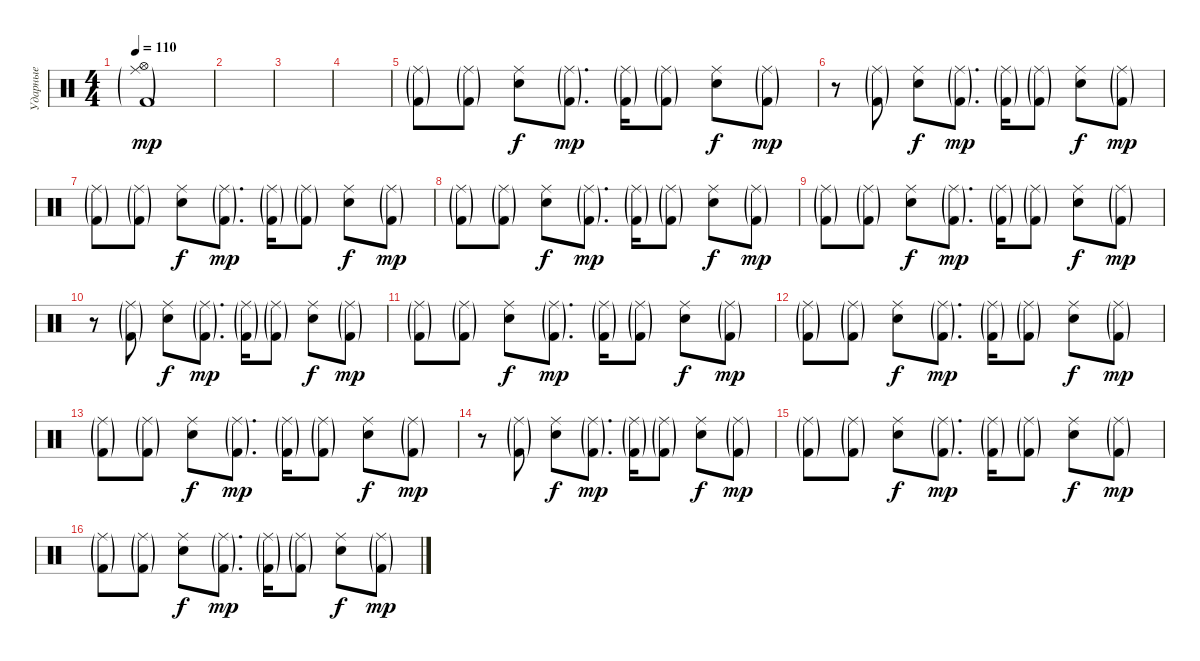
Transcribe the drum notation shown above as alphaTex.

\track ("Ударные" "Ударные") {instrument percussion}
\staff {score}
\articulation defaults
\ts (4 4)
\tempo 110
\clef neutral
\ks c
("Hi-Hat (open)" "Ride (middle)"{g} "Kick (hit) 2"{g}).1{dy mp} |
|
|
|
("Ride (middle)"{g} "Kick (hit) 2"{g}).8 ("Ride (middle)"{g} "Kick (hit) 2"{g}).8 ("Ride (middle)" "Snare (hit) 2").8{dy f} ("Ride (middle)"{g} "Kick (hit) 2"{g}).8{d dy mp} ("Ride (middle)"{g} "Kick (hit) 2"{g}).16 ("Ride (middle)"{g} "Kick (hit) 2"{g}).8 ("Ride (middle)" "Snare (hit) 2").8{dy f} ("Ride (middle)"{g} "Kick (hit) 2"{g}).8{dy mp} |
r.8 ("Ride (middle)"{g} "Kick (hit) 2"{g}).8 ("Ride (middle)" "Snare (hit) 2").8{dy f} ("Ride (middle)"{g} "Kick (hit) 2"{g}).8{d dy mp} ("Ride (middle)"{g} "Kick (hit) 2"{g}).16 ("Ride (middle)"{g} "Kick (hit) 2"{g}).8 ("Ride (middle)" "Snare (hit) 2").8{dy f} ("Ride (middle)"{g} "Kick (hit) 2"{g}).8{dy mp} |
("Ride (middle)"{g} "Kick (hit) 2"{g}).8 ("Ride (middle)"{g} "Kick (hit) 2"{g}).8 ("Ride (middle)" "Snare (hit) 2").8{dy f} ("Ride (middle)"{g} "Kick (hit) 2"{g}).8{d dy mp} ("Ride (middle)"{g} "Kick (hit) 2"{g}).16 ("Ride (middle)"{g} "Kick (hit) 2"{g}).8 ("Ride (middle)" "Snare (hit) 2").8{dy f} ("Ride (middle)"{g} "Kick (hit) 2"{g}).8{dy mp} |
("Ride (middle)"{g} "Kick (hit) 2"{g}).8 ("Ride (middle)"{g} "Kick (hit) 2"{g}).8 ("Ride (middle)" "Snare (hit) 2").8{dy f} ("Ride (middle)"{g} "Kick (hit) 2"{g}).8{d dy mp} ("Ride (middle)"{g} "Kick (hit) 2"{g}).16 ("Ride (middle)"{g} "Kick (hit) 2"{g}).8 ("Ride (middle)" "Snare (hit) 2").8{dy f} ("Ride (middle)"{g} "Kick (hit) 2"{g}).8{dy mp} |
("Ride (middle)"{g} "Kick (hit) 2"{g}).8 ("Ride (middle)"{g} "Kick (hit) 2"{g}).8 ("Ride (middle)" "Snare (hit) 2").8{dy f} ("Ride (middle)"{g} "Kick (hit) 2"{g}).8{d dy mp} ("Ride (middle)"{g} "Kick (hit) 2"{g}).16 ("Ride (middle)"{g} "Kick (hit) 2"{g}).8 ("Ride (middle)" "Snare (hit) 2").8{dy f} ("Ride (middle)"{g} "Kick (hit) 2"{g}).8{dy mp} |
r.8 ("Ride (middle)"{g} "Kick (hit) 2"{g}).8 ("Ride (middle)" "Snare (hit) 2").8{dy f} ("Ride (middle)"{g} "Kick (hit) 2"{g}).8{d dy mp} ("Ride (middle)"{g} "Kick (hit) 2"{g}).16 ("Ride (middle)"{g} "Kick (hit) 2"{g}).8 ("Ride (middle)" "Snare (hit) 2").8{dy f} ("Ride (middle)"{g} "Kick (hit) 2"{g}).8{dy mp} |
("Ride (middle)"{g} "Kick (hit) 2"{g}).8 ("Ride (middle)"{g} "Kick (hit) 2"{g}).8 ("Ride (middle)" "Snare (hit) 2").8{dy f} ("Ride (middle)"{g} "Kick (hit) 2"{g}).8{d dy mp} ("Ride (middle)"{g} "Kick (hit) 2"{g}).16 ("Ride (middle)"{g} "Kick (hit) 2"{g}).8 ("Ride (middle)" "Snare (hit) 2").8{dy f} ("Ride (middle)"{g} "Kick (hit) 2"{g}).8{dy mp} |
("Ride (middle)"{g} "Kick (hit) 2"{g}).8 ("Ride (middle)"{g} "Kick (hit) 2"{g}).8 ("Ride (middle)" "Snare (hit) 2").8{dy f} ("Ride (middle)"{g} "Kick (hit) 2"{g}).8{d dy mp} ("Ride (middle)"{g} "Kick (hit) 2"{g}).16 ("Ride (middle)"{g} "Kick (hit) 2"{g}).8 ("Ride (middle)" "Snare (hit) 2").8{dy f} ("Ride (middle)"{g} "Kick (hit) 2"{g}).8{dy mp} |
("Ride (middle)"{g} "Kick (hit) 2"{g}).8 ("Ride (middle)"{g} "Kick (hit) 2"{g}).8 ("Ride (middle)" "Snare (hit) 2").8{dy f} ("Ride (middle)"{g} "Kick (hit) 2"{g}).8{d dy mp} ("Ride (middle)"{g} "Kick (hit) 2"{g}).16 ("Ride (middle)"{g} "Kick (hit) 2"{g}).8 ("Ride (middle)" "Snare (hit) 2").8{dy f} ("Ride (middle)"{g} "Kick (hit) 2"{g}).8{dy mp} |
r.8 ("Ride (middle)"{g} "Kick (hit) 2"{g}).8 ("Ride (middle)" "Snare (hit) 2").8{dy f} ("Ride (middle)"{g} "Kick (hit) 2"{g}).8{d dy mp} ("Ride (middle)"{g} "Kick (hit) 2"{g}).16 ("Ride (middle)"{g} "Kick (hit) 2"{g}).8 ("Ride (middle)" "Snare (hit) 2").8{dy f} ("Ride (middle)"{g} "Kick (hit) 2"{g}).8{dy mp} |
("Ride (middle)"{g} "Kick (hit) 2"{g}).8 ("Ride (middle)"{g} "Kick (hit) 2"{g}).8 ("Ride (middle)" "Snare (hit) 2").8{dy f} ("Ride (middle)"{g} "Kick (hit) 2"{g}).8{d dy mp} ("Ride (middle)"{g} "Kick (hit) 2"{g}).16 ("Ride (middle)"{g} "Kick (hit) 2"{g}).8 ("Ride (middle)" "Snare (hit) 2").8{dy f} ("Ride (middle)"{g} "Kick (hit) 2"{g}).8{dy mp} |
("Ride (middle)"{g} "Kick (hit) 2"{g}).8 ("Ride (middle)"{g} "Kick (hit) 2"{g}).8 ("Ride (middle)" "Snare (hit) 2").8{dy f} ("Ride (middle)"{g} "Kick (hit) 2"{g}).8{d dy mp} ("Ride (middle)"{g} "Kick (hit) 2"{g}).16 ("Ride (middle)"{g} "Kick (hit) 2"{g}).8 ("Ride (middle)" "Snare (hit) 2").8{dy f} ("Ride (middle)"{g} "Kick (hit) 2"{g}).8{dy mp}
